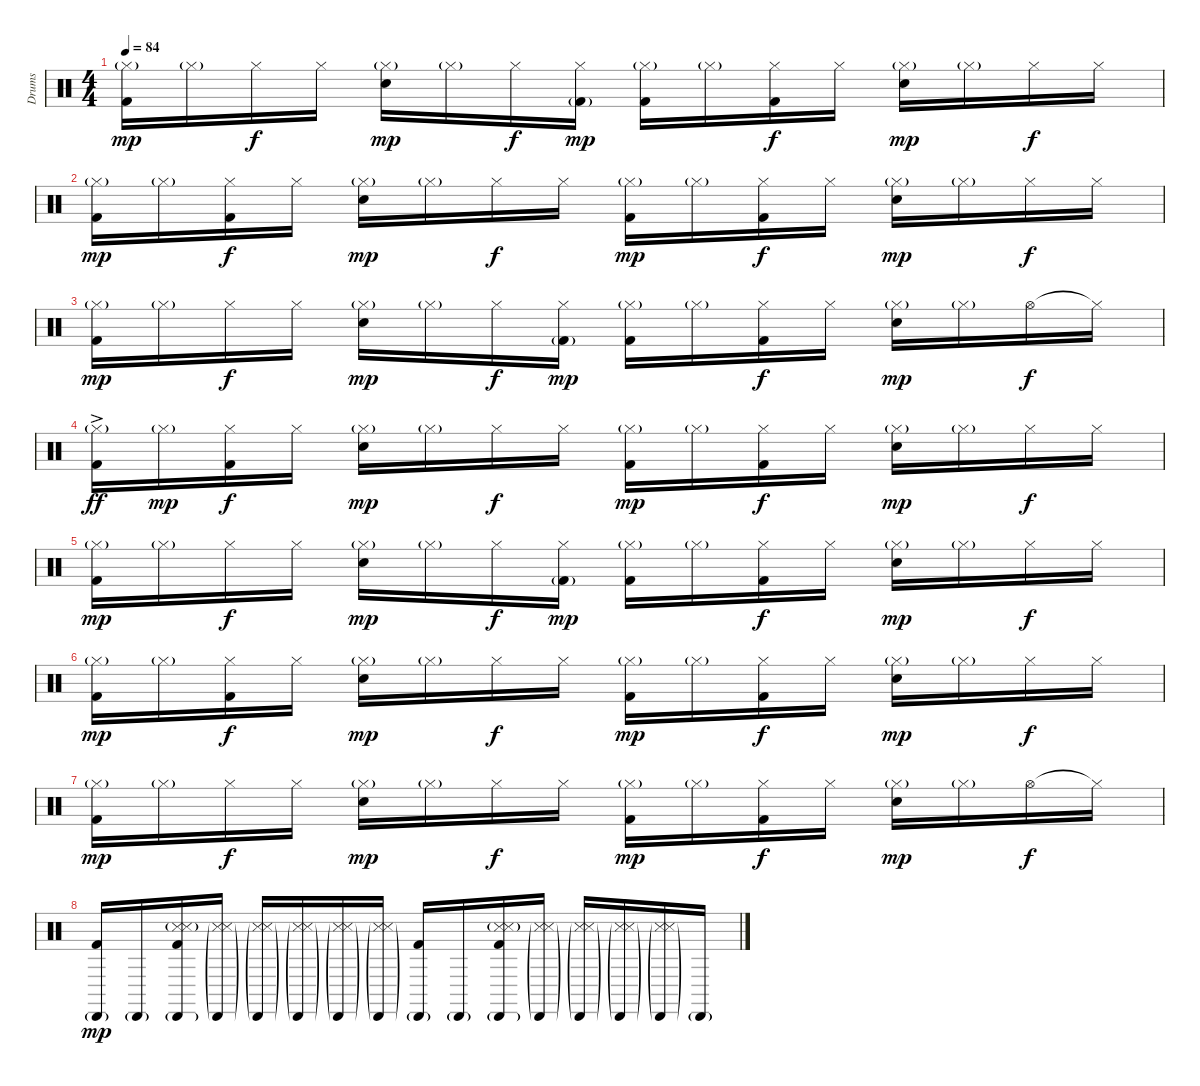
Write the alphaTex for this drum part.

\track ("Drums" "Drums") {instrument percussion}
\staff {score}
\articulation defaults
\ts (4 4)
\tempo 84
\clef neutral
\ks c
("Hi-Hat (closed)"{g} "Kick (hit) 2").16{dy mp} "Hi-Hat (closed)"{g}.16 "Hi-Hat (closed)".16{dy f} "Hi-Hat (closed)".16 ("Hi-Hat (closed)"{g} "Snare (hit) 2").16{dy mp} "Hi-Hat (closed)"{g}.16 "Hi-Hat (closed)".16{dy f} ("Hi-Hat (closed)" "Kick (hit) 2"{g}).16{dy mp} ("Hi-Hat (closed)"{g} "Kick (hit) 2").16 "Hi-Hat (closed)"{g}.16 ("Hi-Hat (closed)" "Kick (hit) 2").16{dy f} "Hi-Hat (closed)".16 ("Hi-Hat (closed)"{g} "Snare (hit) 2").16{dy mp} "Hi-Hat (closed)"{g}.16 "Hi-Hat (closed)".16{dy f} "Hi-Hat (closed)".16 |
("Hi-Hat (closed)"{g} "Kick (hit) 2").16{dy mp} "Hi-Hat (closed)"{g}.16 ("Hi-Hat (closed)" "Kick (hit) 2").16{dy f} "Hi-Hat (closed)".16 ("Hi-Hat (closed)"{g} "Snare (hit) 2").16{dy mp} "Hi-Hat (closed)"{g}.16 "Hi-Hat (closed)".16{dy f} "Hi-Hat (closed)".16 ("Hi-Hat (closed)"{g} "Kick (hit) 2").16{dy mp} "Hi-Hat (closed)"{g}.16 ("Hi-Hat (closed)" "Kick (hit) 2").16{dy f} "Hi-Hat (closed)".16 ("Hi-Hat (closed)"{g} "Snare (hit) 2").16{dy mp} "Hi-Hat (closed)"{g}.16 "Hi-Hat (closed)".16{dy f} "Hi-Hat (closed)".16 |
("Hi-Hat (closed)"{g} "Kick (hit) 2").16{dy mp} "Hi-Hat (closed)"{g}.16 "Hi-Hat (closed)".16{dy f} "Hi-Hat (closed)".16 ("Hi-Hat (closed)"{g} "Snare (hit) 2").16{dy mp} "Hi-Hat (closed)"{g}.16 "Hi-Hat (closed)".16{dy f} ("Hi-Hat (closed)" "Kick (hit) 2"{g}).16{dy mp} ("Hi-Hat (closed)"{g} "Kick (hit) 2").16 "Hi-Hat (closed)"{g}.16 ("Hi-Hat (closed)" "Kick (hit) 2").16{dy f} "Hi-Hat (closed)".16 ("Hi-Hat (closed)"{g} "Snare (hit) 2").16{dy mp} "Hi-Hat (closed)"{g}.16 "Hi-Hat (open)".16{dy f} "Hi-Hat (closed)"{t}.16 |
("Hi-Hat (closed)"{g} "Kick (hit) 2"{ac}).16{dy ff} "Hi-Hat (closed)"{g}.16{dy mp} ("Hi-Hat (closed)" "Kick (hit) 2").16{dy f} "Hi-Hat (closed)".16 ("Hi-Hat (closed)"{g} "Snare (hit) 2").16{dy mp} "Hi-Hat (closed)"{g}.16 "Hi-Hat (closed)".16{dy f} "Hi-Hat (closed)".16 ("Hi-Hat (closed)"{g} "Kick (hit) 2").16{dy mp} "Hi-Hat (closed)"{g}.16 ("Hi-Hat (closed)" "Kick (hit) 2").16{dy f} "Hi-Hat (closed)".16 ("Hi-Hat (closed)"{g} "Snare (hit) 2").16{dy mp} "Hi-Hat (closed)"{g}.16 "Hi-Hat (closed)".16{dy f} "Hi-Hat (closed)".16 |
("Hi-Hat (closed)"{g} "Kick (hit) 2").16{dy mp} "Hi-Hat (closed)"{g}.16 "Hi-Hat (closed)".16{dy f} "Hi-Hat (closed)".16 ("Hi-Hat (closed)"{g} "Snare (hit) 2").16{dy mp} "Hi-Hat (closed)"{g}.16 "Hi-Hat (closed)".16{dy f} ("Hi-Hat (closed)" "Kick (hit) 2"{g}).16{dy mp} ("Hi-Hat (closed)"{g} "Kick (hit) 2").16 "Hi-Hat (closed)"{g}.16 ("Hi-Hat (closed)" "Kick (hit) 2").16{dy f} "Hi-Hat (closed)".16 ("Hi-Hat (closed)"{g} "Snare (hit) 2").16{dy mp} "Hi-Hat (closed)"{g}.16 "Hi-Hat (closed)".16{dy f} "Hi-Hat (closed)".16 |
("Hi-Hat (closed)"{g} "Kick (hit) 2").16{dy mp} "Hi-Hat (closed)"{g}.16 ("Hi-Hat (closed)" "Kick (hit) 2").16{dy f} "Hi-Hat (closed)".16 ("Hi-Hat (closed)"{g} "Snare (hit) 2").16{dy mp} "Hi-Hat (closed)"{g}.16 "Hi-Hat (closed)".16{dy f} "Hi-Hat (closed)".16 ("Hi-Hat (closed)"{g} "Kick (hit) 2").16{dy mp} "Hi-Hat (closed)"{g}.16 ("Hi-Hat (closed)" "Kick (hit) 2").16{dy f} "Hi-Hat (closed)".16 ("Hi-Hat (closed)"{g} "Snare (hit) 2").16{dy mp} "Hi-Hat (closed)"{g}.16 "Hi-Hat (closed)".16{dy f} "Hi-Hat (closed)".16 |
("Hi-Hat (closed)"{g} "Kick (hit) 2").16{dy mp} "Hi-Hat (closed)"{g}.16 "Hi-Hat (closed)".16{dy f} "Hi-Hat (closed)".16 ("Hi-Hat (closed)"{g} "Snare (hit) 2").16{dy mp} "Hi-Hat (closed)"{g}.16 "Hi-Hat (closed)".16{dy f} "Hi-Hat (closed)".16 ("Hi-Hat (closed)"{g} "Kick (hit) 2").16{dy mp} "Hi-Hat (closed)"{g}.16 ("Hi-Hat (closed)" "Kick (hit) 2").16{dy f} "Hi-Hat (closed)".16 ("Hi-Hat (closed)"{g} "Snare (hit) 2").16{dy mp} "Hi-Hat (closed)"{g}.16 "Hi-Hat (open)".16{dy f} "Hi-Hat (closed)"{t}.16 |
("Cabasa (hit)"{g} "Kick (hit) 2").16{dy mp} "Cabasa (hit)"{g}.16 ("Cabasa (hit)"{g} "Metronome (hit)"{g} "Snare (side stick) 3"{g} "Kick (hit) 2").16 ("Cabasa (hit)"{g} "Metronome (hit)"{g} "Snare (side stick) 3"{g}).16 ("Cabasa (hit)"{g} "Metronome (hit)"{g} "Snare (side stick) 3"{g}).16 ("Cabasa (hit)"{g} "Metronome (hit)"{g} "Snare (side stick) 3"{g}).16 ("Cabasa (hit)"{g} "Metronome (hit)"{g} "Snare (side stick) 3"{g}).16 ("Cabasa (hit)"{g} "Metronome (hit)"{g} "Snare (side stick) 3"{g}).16 ("Cabasa (hit)"{g} "Kick (hit) 2").16 "Cabasa (hit)"{g}.16 ("Cabasa (hit)"{g} "Metronome (hit)"{g} "Snare (side stick) 3"{g} "Kick (hit) 2").16 ("Cabasa (hit)"{g} "Metronome (hit)"{g} "Snare (side stick) 3"{g}).16 ("Cabasa (hit)"{g} "Metronome (hit)"{g} "Snare (side stick) 3"{g}).16 ("Cabasa (hit)"{g} "Metronome (hit)"{g} "Snare (side stick) 3"{g}).16 ("Cabasa (hit)"{g} "Metronome (hit)"{g} "Snare (side stick) 3"{g}).16 "Cabasa (hit)"{g}.16
